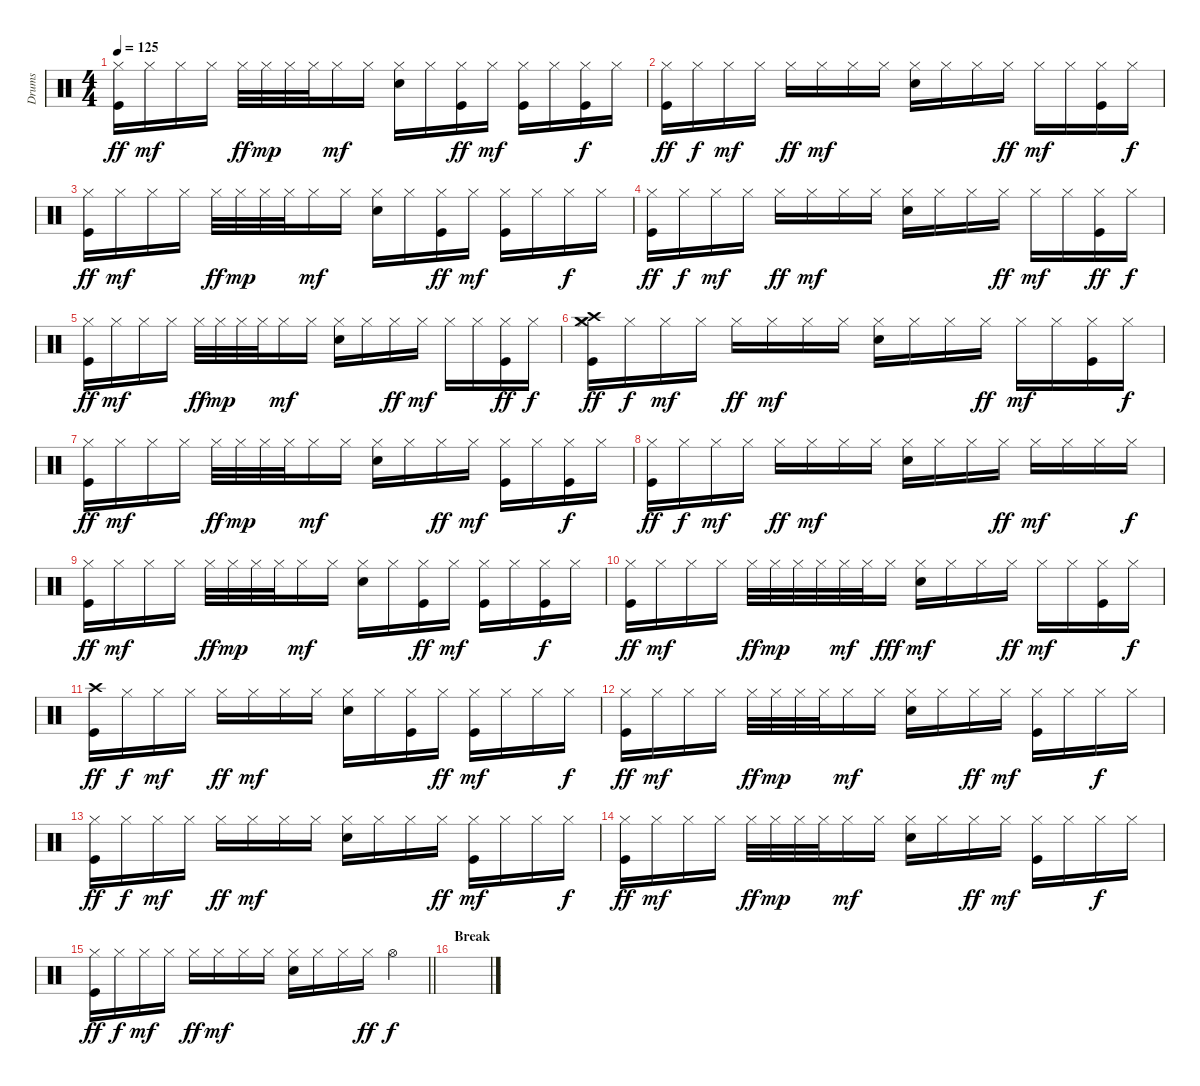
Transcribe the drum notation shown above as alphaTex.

\track ("Drums" "Drums") {instrument percussion}
\staff {score}
\articulation defaults
\ts (4 4)
\tempo 125
\clef neutral
\ks c
("Hi-Hat (closed)" "Kick (hit)").16{dy ff} "Hi-Hat (closed)".16{dy mf} "Hi-Hat (closed)".16 "Hi-Hat (closed)".16 "Hi-Hat (closed)".32{dy ff} "Hi-Hat (closed)".32{dy mp} "Hi-Hat (closed)".32 "Hi-Hat (closed)".32 "Hi-Hat (closed)".16{dy mf} "Hi-Hat (closed)".16 ("Hi-Hat (closed)" "Electric Snare (hit)").16 "Hi-Hat (closed)".16 ("Hi-Hat (closed)" "Kick (hit)").16{dy ff} "Hi-Hat (closed)".16{dy mf} ("Hi-Hat (closed)" "Kick (hit)").16 "Hi-Hat (closed)".16 ("Hi-Hat (closed)" "Kick (hit)").16{dy f} "Hi-Hat (closed)".16 |
("Hi-Hat (closed)" "Kick (hit)").16{dy ff} "Hi-Hat (closed)".16{dy f} "Hi-Hat (closed)".16{dy mf} "Hi-Hat (closed)".16 "Hi-Hat (closed)".16{dy ff} "Hi-Hat (closed)".16{dy mf} "Hi-Hat (closed)".16 "Hi-Hat (closed)".16 ("Hi-Hat (closed)" "Electric Snare (hit)").16 "Hi-Hat (closed)".16 "Hi-Hat (closed)".16 "Hi-Hat (closed)".16{dy ff} "Hi-Hat (closed)".16{dy mf} "Hi-Hat (closed)".16 ("Hi-Hat (closed)" "Kick (hit)").16 "Hi-Hat (closed)".16{dy f} |
("Hi-Hat (closed)" "Kick (hit)").16{dy ff} "Hi-Hat (closed)".16{dy mf} "Hi-Hat (closed)".16 "Hi-Hat (closed)".16 "Hi-Hat (closed)".32{dy ff} "Hi-Hat (closed)".32{dy mp} "Hi-Hat (closed)".32 "Hi-Hat (closed)".32 "Hi-Hat (closed)".16{dy mf} "Hi-Hat (closed)".16 ("Hi-Hat (closed)" "Electric Snare (hit)").16 "Hi-Hat (closed)".16 ("Hi-Hat (closed)" "Kick (hit)").16{dy ff} "Hi-Hat (closed)".16{dy mf} ("Hi-Hat (closed)" "Kick (hit)").16 "Hi-Hat (closed)".16 "Hi-Hat (closed)".16{dy f} "Hi-Hat (closed)".16 |
("Hi-Hat (closed)" "Kick (hit)").16{dy ff} "Hi-Hat (closed)".16{dy f} "Hi-Hat (closed)".16{dy mf} "Hi-Hat (closed)".16 "Hi-Hat (closed)".16{dy ff} "Hi-Hat (closed)".16{dy mf} "Hi-Hat (closed)".16 "Hi-Hat (closed)".16 ("Hi-Hat (closed)" "Electric Snare (hit)").16 "Hi-Hat (closed)".16 "Hi-Hat (closed)".16 "Hi-Hat (closed)".16{dy ff} "Hi-Hat (closed)".16{dy mf} "Hi-Hat (closed)".16 ("Hi-Hat (closed)" "Kick (hit)").16{dy ff} "Hi-Hat (closed)".16{dy f} |
("Kick (hit)" "Hi-Hat (closed)").16{dy ff} "Hi-Hat (closed)".16{dy mf} "Hi-Hat (closed)".16 "Hi-Hat (closed)".16 "Hi-Hat (closed)".32{dy ff} "Hi-Hat (closed)".32{dy mp} "Hi-Hat (closed)".32 "Hi-Hat (closed)".32 "Hi-Hat (closed)".16{dy mf} "Hi-Hat (closed)".16 ("Hi-Hat (closed)" "Electric Snare (hit)").16 "Hi-Hat (closed)".16 "Hi-Hat (closed)".16{dy ff} "Hi-Hat (closed)".16{dy mf} "Hi-Hat (closed)".16 "Hi-Hat (closed)".16 ("Hi-Hat (closed)" "Kick (hit)").16{dy ff} "Hi-Hat (closed)".16{dy f} |
("Hi-Hat (closed)" "Kick (hit)" "Crash medium (hit)" "Crash high (hit)").16{dy ff} "Hi-Hat (closed)".16{dy f} "Hi-Hat (closed)".16{dy mf} "Hi-Hat (closed)".16 "Hi-Hat (closed)".16{dy ff} "Hi-Hat (closed)".16{dy mf} "Hi-Hat (closed)".16 "Hi-Hat (closed)".16 ("Hi-Hat (closed)" "Electric Snare (hit)").16 "Hi-Hat (closed)".16 "Hi-Hat (closed)".16 "Hi-Hat (closed)".16{dy ff} "Hi-Hat (closed)".16{dy mf} "Hi-Hat (closed)".16 ("Hi-Hat (closed)" "Kick (hit)").16 "Hi-Hat (closed)".16{dy f} |
("Kick (hit)" "Hi-Hat (closed)").16{dy ff} "Hi-Hat (closed)".16{dy mf} "Hi-Hat (closed)".16 "Hi-Hat (closed)".16 "Hi-Hat (closed)".32{dy ff} "Hi-Hat (closed)".32{dy mp} "Hi-Hat (closed)".32 "Hi-Hat (closed)".32 "Hi-Hat (closed)".16{dy mf} "Hi-Hat (closed)".16 ("Hi-Hat (closed)" "Electric Snare (hit)").16 "Hi-Hat (closed)".16 "Hi-Hat (closed)".16{dy ff} "Hi-Hat (closed)".16{dy mf} ("Hi-Hat (closed)" "Kick (hit)").16 "Hi-Hat (closed)".16 ("Hi-Hat (closed)" "Kick (hit)").16{dy f} "Hi-Hat (closed)".16 |
("Hi-Hat (closed)" "Kick (hit)").16{dy ff} "Hi-Hat (closed)".16{dy f} "Hi-Hat (closed)".16{dy mf} "Hi-Hat (closed)".16 "Hi-Hat (closed)".16{dy ff} "Hi-Hat (closed)".16{dy mf} "Hi-Hat (closed)".16 "Hi-Hat (closed)".16 ("Hi-Hat (closed)" "Electric Snare (hit)").16 "Hi-Hat (closed)".16 "Hi-Hat (closed)".16 "Hi-Hat (closed)".16{dy ff} "Hi-Hat (closed)".16{dy mf} "Hi-Hat (closed)".16 "Hi-Hat (closed)".16 "Hi-Hat (closed)".16{dy f} |
("Kick (hit)" "Hi-Hat (closed)").16{dy ff} "Hi-Hat (closed)".16{dy mf} "Hi-Hat (closed)".16 "Hi-Hat (closed)".16 "Hi-Hat (closed)".32{dy ff} "Hi-Hat (closed)".32{dy mp} "Hi-Hat (closed)".32 "Hi-Hat (closed)".32 "Hi-Hat (closed)".16{dy mf} "Hi-Hat (closed)".16 ("Hi-Hat (closed)" "Electric Snare (hit)").16 "Hi-Hat (closed)".16 ("Hi-Hat (closed)" "Kick (hit)").16{dy ff} "Hi-Hat (closed)".16{dy mf} ("Hi-Hat (closed)" "Kick (hit)").16 "Hi-Hat (closed)".16 ("Hi-Hat (closed)" "Kick (hit)").16{dy f} "Hi-Hat (closed)".16 |
("Kick (hit)" "Hi-Hat (closed)").16{dy ff} "Hi-Hat (closed)".16{dy mf} "Hi-Hat (closed)".16 "Hi-Hat (closed)".16 "Hi-Hat (closed)".32{dy ff} "Hi-Hat (closed)".32{dy mp} "Hi-Hat (closed)".32 "Hi-Hat (closed)".32 "Hi-Hat (closed)".32{dy mf} "Hi-Hat (closed)".32 "Hi-Hat (closed)".16{dy fff} ("Hi-Hat (closed)" "Electric Snare (hit)").16{dy mf} "Hi-Hat (closed)".16 "Hi-Hat (closed)".16 "Hi-Hat (closed)".16{dy ff} "Hi-Hat (closed)".16{dy mf} "Hi-Hat (closed)".16 ("Hi-Hat (closed)" "Kick (hit)").16 "Hi-Hat (closed)".16{dy f} |
("Kick (hit)" "Crash high (hit)").16{dy ff} "Hi-Hat (closed)".16{dy f} "Hi-Hat (closed)".16{dy mf} "Hi-Hat (closed)".16 "Hi-Hat (closed)".16{dy ff} "Hi-Hat (closed)".16{dy mf} "Hi-Hat (closed)".16 "Hi-Hat (closed)".16 ("Hi-Hat (closed)" "Electric Snare (hit)").16 "Hi-Hat (closed)".16 ("Hi-Hat (closed)" "Kick (hit)").16 "Hi-Hat (closed)".16{dy ff} ("Hi-Hat (closed)" "Kick (hit)").16{dy mf} "Hi-Hat (closed)".16 "Hi-Hat (closed)".16 "Hi-Hat (closed)".16{dy f} |
("Kick (hit)" "Hi-Hat (closed)").16{dy ff} "Hi-Hat (closed)".16{dy mf} "Hi-Hat (closed)".16 "Hi-Hat (closed)".16 "Hi-Hat (closed)".32{dy ff} "Hi-Hat (closed)".32{dy mp} "Hi-Hat (closed)".32 "Hi-Hat (closed)".32 "Hi-Hat (closed)".16{dy mf} "Hi-Hat (closed)".16 ("Hi-Hat (closed)" "Electric Snare (hit)").16 "Hi-Hat (closed)".16 "Hi-Hat (closed)".16{dy ff} "Hi-Hat (closed)".16{dy mf} ("Hi-Hat (closed)" "Kick (hit)").16 "Hi-Hat (closed)".16 "Hi-Hat (closed)".16{dy f} "Hi-Hat (closed)".16 |
("Hi-Hat (closed)" "Kick (hit)").16{dy ff} "Hi-Hat (closed)".16{dy f} "Hi-Hat (closed)".16{dy mf} "Hi-Hat (closed)".16 "Hi-Hat (closed)".16{dy ff} "Hi-Hat (closed)".16{dy mf} "Hi-Hat (closed)".16 "Hi-Hat (closed)".16 ("Hi-Hat (closed)" "Electric Snare (hit)").16 "Hi-Hat (closed)".16 "Hi-Hat (closed)".16 "Hi-Hat (closed)".16{dy ff} ("Hi-Hat (closed)" "Kick (hit)").16{dy mf} "Hi-Hat (closed)".16 "Hi-Hat (closed)".16 "Hi-Hat (closed)".16{dy f} |
("Kick (hit)" "Hi-Hat (closed)").16{dy ff} "Hi-Hat (closed)".16{dy mf} "Hi-Hat (closed)".16 "Hi-Hat (closed)".16 "Hi-Hat (closed)".32{dy ff} "Hi-Hat (closed)".32{dy mp} "Hi-Hat (closed)".32 "Hi-Hat (closed)".32 "Hi-Hat (closed)".16{dy mf} "Hi-Hat (closed)".16 ("Hi-Hat (closed)" "Electric Snare (hit)").16 "Hi-Hat (closed)".16 "Hi-Hat (closed)".16{dy ff} "Hi-Hat (closed)".16{dy mf} ("Hi-Hat (closed)" "Kick (hit)").16 "Hi-Hat (closed)".16 "Hi-Hat (closed)".16{dy f} "Hi-Hat (closed)".16 |
\barLineRight lightlight
("Hi-Hat (closed)" "Kick (hit)").16{dy ff} "Hi-Hat (closed)".16{dy f} "Hi-Hat (closed)".16{dy mf} "Hi-Hat (closed)".16 "Hi-Hat (closed)".16{dy ff} "Hi-Hat (closed)".16{dy mf} "Hi-Hat (closed)".16 "Hi-Hat (closed)".16 ("Hi-Hat (closed)" "Electric Snare (hit)").16 "Hi-Hat (closed)".16 "Hi-Hat (closed)".16 "Hi-Hat (closed)".16{dy ff} "Hi-Hat (open)".4{dy f} |
\section ("" "Break")
